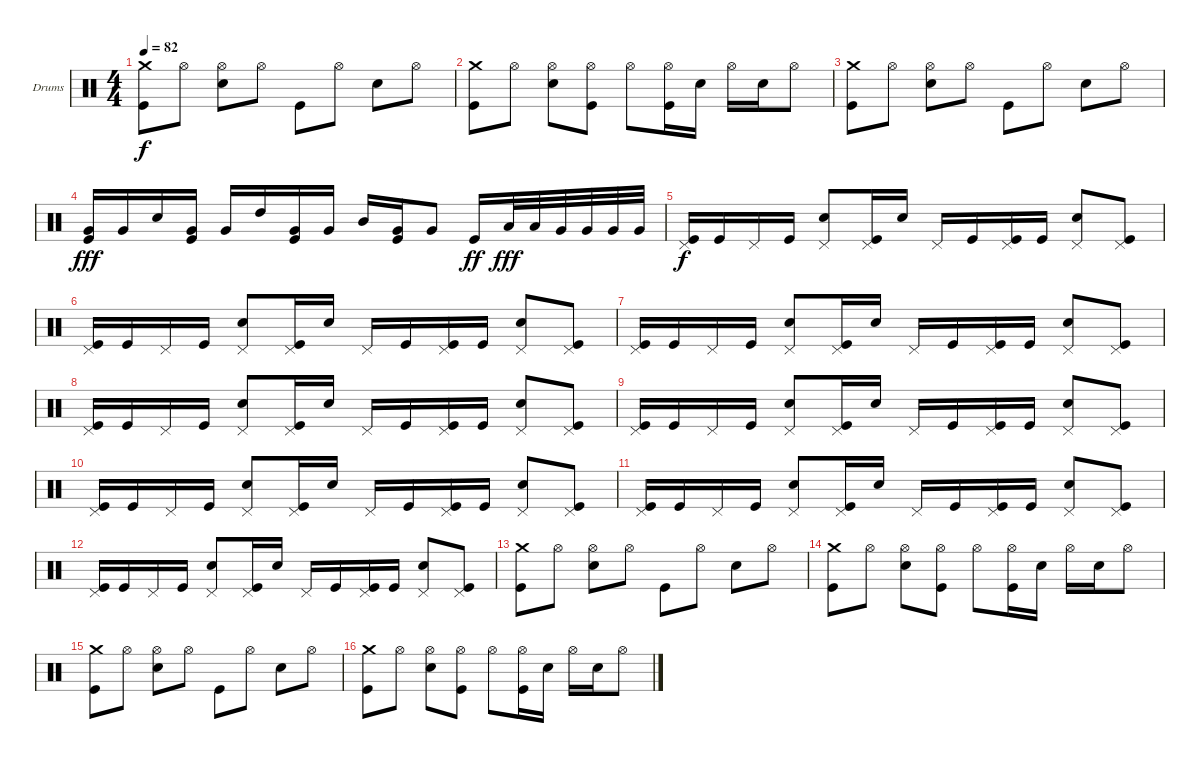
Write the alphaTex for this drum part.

\bracketExtendMode groupsimilarinstruments
\firstSystemTrackNameOrientation horizontal
\otherSystemsTrackNameOrientation horizontal
\track ("Drumkit" "Drums") {instrument percussion}
\staff {score}
\articulation defaults
\ts (4 4)
\tempo 82
\clef neutral
\ks c
("Crash medium (hit)" "Kick (hit)").8{dy f} "Hi-Hat (open)".8 ("Hi-Hat (open)" "Snare (hit) 2").8 "Hi-Hat (open)".8 "Kick (hit)".8 "Hi-Hat (open)".8 "Snare (hit) 2".8 "Hi-Hat (open)".8 |
("Crash medium (hit)" "Kick (hit)").8 "Hi-Hat (open)".8 ("Hi-Hat (open)" "Snare (hit) 2").8 ("Hi-Hat (open)" "Kick (hit)").8 "Hi-Hat (open)".8 ("Hi-Hat (open)" "Kick (hit)").16 "Snare (hit) 2".16 "Hi-Hat (open)".16 "Snare (hit) 2".16 "Hi-Hat (open)".8 |
("Crash medium (hit)" "Kick (hit)").8 "Hi-Hat (open)".8 ("Hi-Hat (open)" "Snare (hit) 2").8 "Hi-Hat (open)".8 "Kick (hit)".8 "Hi-Hat (open)".8 "Snare (hit) 2".8 "Hi-Hat (open)".8 |
("Very Low Tom (hit)" "Kick (hit)").16{dy fff} "Very Low Tom (hit)".16 "Snare (hit) 2".16 ("Very Low Tom (hit)" "Kick (hit)").16 "Very Low Tom (hit)".16 "High Tom (hit)".16 ("Very Low Tom (hit)" "Kick (hit)").16 "Very Low Tom (hit)".16 "Mid Tom (hit)".16 ("Very Low Tom (hit)" "Kick (hit)").16 "Very Low Tom (hit)".8 "Kick (hit)".16{dy ff} "Low Tom (hit)".32{dy fff} "Low Tom (hit)".32 "Very Low Tom (hit)".32 "Very Low Tom (hit)".32 "Very Low Tom (hit)".32 "Very Low Tom (hit)".32 |
("Pedal Hi-Hat (hit)" "Kick (hit)").16{dy f} "Kick (hit)".16 "Pedal Hi-Hat (hit)".16 "Kick (hit)".16 ("Pedal Hi-Hat (hit)" "Snare (hit) 2").8 ("Pedal Hi-Hat (hit)" "Kick (hit)").16 "Snare (hit) 2".16 "Pedal Hi-Hat (hit)".16 "Kick (hit)".16 ("Pedal Hi-Hat (hit)" "Kick (hit)").16 "Kick (hit)".16 ("Pedal Hi-Hat (hit)" "Snare (hit) 2").8 ("Pedal Hi-Hat (hit)" "Kick (hit)").8 |
("Pedal Hi-Hat (hit)" "Kick (hit)").16 "Kick (hit)".16 "Pedal Hi-Hat (hit)".16 "Kick (hit)".16 ("Pedal Hi-Hat (hit)" "Snare (hit) 2").8 ("Pedal Hi-Hat (hit)" "Kick (hit)").16 "Snare (hit) 2".16 "Pedal Hi-Hat (hit)".16 "Kick (hit)".16 ("Pedal Hi-Hat (hit)" "Kick (hit)").16 "Kick (hit)".16 ("Pedal Hi-Hat (hit)" "Snare (hit) 2").8 ("Pedal Hi-Hat (hit)" "Kick (hit)").8 |
("Pedal Hi-Hat (hit)" "Kick (hit)").16 "Kick (hit)".16 "Pedal Hi-Hat (hit)".16 "Kick (hit)".16 ("Pedal Hi-Hat (hit)" "Snare (hit) 2").8 ("Pedal Hi-Hat (hit)" "Kick (hit)").16 "Snare (hit) 2".16 "Pedal Hi-Hat (hit)".16 "Kick (hit)".16 ("Pedal Hi-Hat (hit)" "Kick (hit)").16 "Kick (hit)".16 ("Pedal Hi-Hat (hit)" "Snare (hit) 2").8 ("Pedal Hi-Hat (hit)" "Kick (hit)").8 |
("Pedal Hi-Hat (hit)" "Kick (hit)").16 "Kick (hit)".16 "Pedal Hi-Hat (hit)".16 "Kick (hit)".16 ("Pedal Hi-Hat (hit)" "Snare (hit) 2").8 ("Pedal Hi-Hat (hit)" "Kick (hit)").16 "Snare (hit) 2".16 "Pedal Hi-Hat (hit)".16 "Kick (hit)".16 ("Pedal Hi-Hat (hit)" "Kick (hit)").16 "Kick (hit)".16 ("Pedal Hi-Hat (hit)" "Snare (hit) 2").8 ("Pedal Hi-Hat (hit)" "Kick (hit)").8 |
("Pedal Hi-Hat (hit)" "Kick (hit)").16 "Kick (hit)".16 "Pedal Hi-Hat (hit)".16 "Kick (hit)".16 ("Pedal Hi-Hat (hit)" "Snare (hit) 2").8 ("Pedal Hi-Hat (hit)" "Kick (hit)").16 "Snare (hit) 2".16 "Pedal Hi-Hat (hit)".16 "Kick (hit)".16 ("Pedal Hi-Hat (hit)" "Kick (hit)").16 "Kick (hit)".16 ("Pedal Hi-Hat (hit)" "Snare (hit) 2").8 ("Pedal Hi-Hat (hit)" "Kick (hit)").8 |
("Pedal Hi-Hat (hit)" "Kick (hit)").16 "Kick (hit)".16 "Pedal Hi-Hat (hit)".16 "Kick (hit)".16 ("Pedal Hi-Hat (hit)" "Snare (hit) 2").8 ("Pedal Hi-Hat (hit)" "Kick (hit)").16 "Snare (hit) 2".16 "Pedal Hi-Hat (hit)".16 "Kick (hit)".16 ("Pedal Hi-Hat (hit)" "Kick (hit)").16 "Kick (hit)".16 ("Pedal Hi-Hat (hit)" "Snare (hit) 2").8 ("Pedal Hi-Hat (hit)" "Kick (hit)").8 |
("Pedal Hi-Hat (hit)" "Kick (hit)").16 "Kick (hit)".16 "Pedal Hi-Hat (hit)".16 "Kick (hit)".16 ("Pedal Hi-Hat (hit)" "Snare (hit) 2").8 ("Pedal Hi-Hat (hit)" "Kick (hit)").16 "Snare (hit) 2".16 "Pedal Hi-Hat (hit)".16 "Kick (hit)".16 ("Pedal Hi-Hat (hit)" "Kick (hit)").16 "Kick (hit)".16 ("Pedal Hi-Hat (hit)" "Snare (hit) 2").8 ("Pedal Hi-Hat (hit)" "Kick (hit)").8 |
("Pedal Hi-Hat (hit)" "Kick (hit)").16 "Kick (hit)".16 "Pedal Hi-Hat (hit)".16 "Kick (hit)".16 ("Pedal Hi-Hat (hit)" "Snare (hit) 2").8 ("Pedal Hi-Hat (hit)" "Kick (hit)").16 "Snare (hit) 2".16 "Pedal Hi-Hat (hit)".16 "Kick (hit)".16 ("Pedal Hi-Hat (hit)" "Kick (hit)").16 "Kick (hit)".16 ("Pedal Hi-Hat (hit)" "Snare (hit) 2").8 ("Pedal Hi-Hat (hit)" "Kick (hit)").8 |
("Crash medium (hit)" "Kick (hit)").8 "Hi-Hat (open)".8 ("Hi-Hat (open)" "Snare (hit) 2").8 "Hi-Hat (open)".8 "Kick (hit)".8 "Hi-Hat (open)".8 "Snare (hit) 2".8 "Hi-Hat (open)".8 |
("Crash medium (hit)" "Kick (hit)").8 "Hi-Hat (open)".8 ("Hi-Hat (open)" "Snare (hit) 2").8 ("Hi-Hat (open)" "Kick (hit)").8 "Hi-Hat (open)".8 ("Hi-Hat (open)" "Kick (hit)").16 "Snare (hit) 2".16 "Hi-Hat (open)".16 "Snare (hit) 2".16 "Hi-Hat (open)".8 |
("Crash medium (hit)" "Kick (hit)").8 "Hi-Hat (open)".8 ("Hi-Hat (open)" "Snare (hit) 2").8 "Hi-Hat (open)".8 "Kick (hit)".8 "Hi-Hat (open)".8 "Snare (hit) 2".8 "Hi-Hat (open)".8 |
("Crash medium (hit)" "Kick (hit)").8 "Hi-Hat (open)".8 ("Hi-Hat (open)" "Snare (hit) 2").8 ("Hi-Hat (open)" "Kick (hit)").8 "Hi-Hat (open)".8 ("Hi-Hat (open)" "Kick (hit)").16 "Snare (hit) 2".16 "Hi-Hat (open)".16 "Snare (hit) 2".16 "Hi-Hat (open)".8
